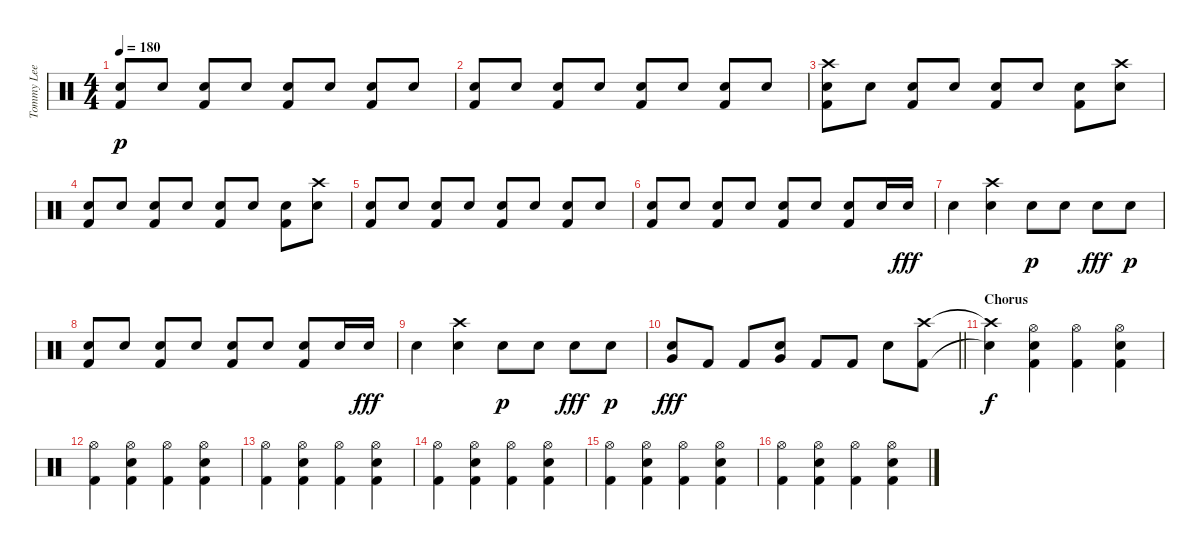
\track ("Tommy Lee" "Tommy Lee") {instrument percussion}
\staff {score}
\articulation defaults
\ts (4 4)
\tempo 180
\clef neutral
\ks c
("Electric Snare (hit)" "Kick (hit) 2").8{dy p} "Electric Snare (hit)".8 ("Electric Snare (hit)" "Kick (hit) 2").8 "Electric Snare (hit)".8 ("Electric Snare (hit)" "Kick (hit) 2").8 "Electric Snare (hit)".8 ("Electric Snare (hit)" "Kick (hit) 2").8 "Electric Snare (hit)".8 |
("Electric Snare (hit)" "Kick (hit) 2").8 "Electric Snare (hit)".8 ("Electric Snare (hit)" "Kick (hit) 2").8 "Electric Snare (hit)".8 ("Electric Snare (hit)" "Kick (hit) 2").8 "Electric Snare (hit)".8 ("Electric Snare (hit)" "Kick (hit) 2").8 "Electric Snare (hit)".8 |
("Crash high (hit)" "Electric Snare (hit)" "Kick (hit) 2").8 "Electric Snare (hit)".8 ("Electric Snare (hit)" "Kick (hit) 2").8 "Electric Snare (hit)".8 ("Electric Snare (hit)" "Kick (hit) 2").8 "Electric Snare (hit)".8 ("Electric Snare (hit)" "Kick (hit) 2").8 ("Crash high (hit)" "Electric Snare (hit)").8 |
("Electric Snare (hit)" "Kick (hit) 2").8 "Electric Snare (hit)".8 ("Electric Snare (hit)" "Kick (hit) 2").8 "Electric Snare (hit)".8 ("Electric Snare (hit)" "Kick (hit) 2").8 "Electric Snare (hit)".8 ("Electric Snare (hit)" "Kick (hit) 2").8 ("Crash high (hit)" "Electric Snare (hit)").8 |
("Electric Snare (hit)" "Kick (hit) 2").8 "Electric Snare (hit)".8 ("Electric Snare (hit)" "Kick (hit) 2").8 "Electric Snare (hit)".8 ("Electric Snare (hit)" "Kick (hit) 2").8 "Electric Snare (hit)".8 ("Electric Snare (hit)" "Kick (hit) 2").8 "Electric Snare (hit)".8 |
("Electric Snare (hit)" "Kick (hit) 2").8 "Electric Snare (hit)".8 ("Electric Snare (hit)" "Kick (hit) 2").8 "Electric Snare (hit)".8 ("Electric Snare (hit)" "Kick (hit) 2").8 "Electric Snare (hit)".8 ("Electric Snare (hit)" "Kick (hit) 2").8 "Electric Snare (hit)".16 "Electric Snare (hit)".16{dy fff} |
"Electric Snare (hit)".4 ("Crash high (hit)" "Electric Snare (hit)").4 "Electric Snare (hit)".8{dy p} "Electric Snare (hit)".8 "Electric Snare (hit)".8{dy fff} "Electric Snare (hit)".8{dy p} |
("Electric Snare (hit)" "Kick (hit) 2").8 "Electric Snare (hit)".8 ("Electric Snare (hit)" "Kick (hit) 2").8 "Electric Snare (hit)".8 ("Electric Snare (hit)" "Kick (hit) 2").8 "Electric Snare (hit)".8 ("Electric Snare (hit)" "Kick (hit) 2").8 "Electric Snare (hit)".16 "Electric Snare (hit)".16{dy fff} |
"Electric Snare (hit)".4 ("Crash high (hit)" "Electric Snare (hit)").4 "Electric Snare (hit)".8{dy p} "Electric Snare (hit)".8 "Electric Snare (hit)".8{dy fff} "Electric Snare (hit)".8{dy p} |
\barLineRight lightlight
("Electric Snare (hit)" "Very Low Tom (hit)").8{dy fff} "Kick (hit) 2".8 "Kick (hit) 2".8 ("Electric Snare (hit)" "Very Low Tom (hit)").8 "Kick (hit) 2".8 "Kick (hit) 2".8 "Electric Snare (hit)".8 ("Crash high (hit)" "Kick (hit) 2").8 |
\section ("" "Chorus")
("Crash high (hit)"{t} "Snare (hit)"{t}).4{dy f} ("Hi-Hat (open)" "Electric Snare (hit)" "Kick (hit) 2").4 ("Hi-Hat (open)" "Kick (hit) 2").4 ("Hi-Hat (open)" "Electric Snare (hit)" "Kick (hit) 2").4 |
("Hi-Hat (open)" "Kick (hit) 2").4 ("Hi-Hat (open)" "Electric Snare (hit)" "Kick (hit) 2").4 ("Hi-Hat (open)" "Kick (hit) 2").4 ("Hi-Hat (open)" "Electric Snare (hit)" "Kick (hit) 2").4 |
("Hi-Hat (open)" "Kick (hit) 2").4 ("Hi-Hat (open)" "Electric Snare (hit)" "Kick (hit) 2").4 ("Hi-Hat (open)" "Kick (hit) 2").4 ("Hi-Hat (open)" "Electric Snare (hit)" "Kick (hit) 2").4 |
("Hi-Hat (open)" "Kick (hit) 2").4 ("Hi-Hat (open)" "Electric Snare (hit)" "Kick (hit) 2").4 ("Hi-Hat (open)" "Kick (hit) 2").4 ("Hi-Hat (open)" "Electric Snare (hit)" "Kick (hit) 2").4 |
("Hi-Hat (open)" "Kick (hit) 2").4 ("Hi-Hat (open)" "Electric Snare (hit)" "Kick (hit) 2").4 ("Hi-Hat (open)" "Kick (hit) 2").4 ("Hi-Hat (open)" "Electric Snare (hit)" "Kick (hit) 2").4 |
("Hi-Hat (open)" "Kick (hit) 2").4 ("Hi-Hat (open)" "Electric Snare (hit)" "Kick (hit) 2").4 ("Hi-Hat (open)" "Kick (hit) 2").4 ("Hi-Hat (open)" "Electric Snare (hit)" "Kick (hit) 2").4
